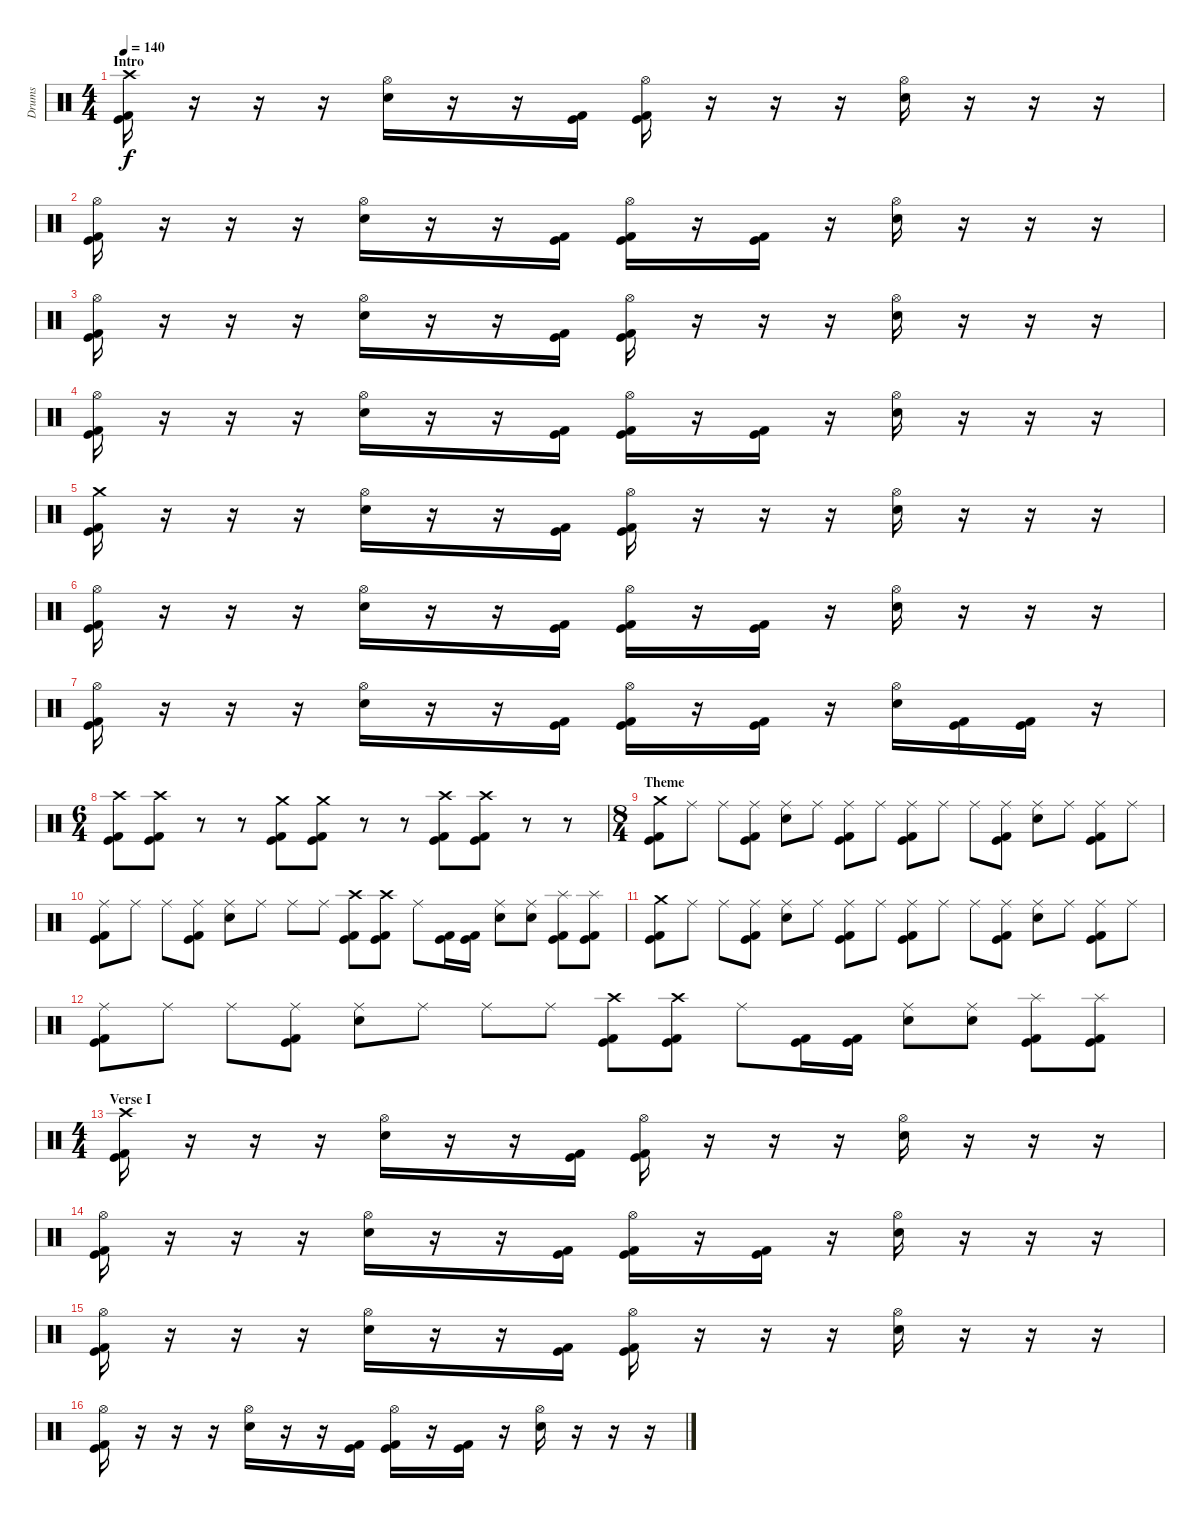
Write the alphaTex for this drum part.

\track ("Drums" "Drums") {instrument percussion}
\staff {score}
\articulation defaults
\ts (4 4)
\section ("" "Intro")
\tempo 140
\clef neutral
\ks c
("Crash high (hit)" "Kick (hit)" "Kick (hit) 2").16{dy f} r.16 r.16 r.16 ("Hi-Hat (open)" "Electric Snare (hit)").16 r.16 r.16 ("Kick (hit)" "Kick (hit) 2").16 ("Hi-Hat (open)" "Kick (hit)" "Kick (hit) 2").16 r.16 r.16 r.16 ("Hi-Hat (open)" "Electric Snare (hit)").16 r.16 r.16 r.16 |
("Hi-Hat (open)" "Kick (hit)" "Kick (hit) 2").16 r.16 r.16 r.16 ("Hi-Hat (open)" "Electric Snare (hit)").16 r.16 r.16 ("Kick (hit)" "Kick (hit) 2").16 ("Hi-Hat (open)" "Kick (hit)" "Kick (hit) 2").16 r.16 ("Kick (hit)" "Kick (hit) 2").16 r.16 ("Hi-Hat (open)" "Electric Snare (hit)").16 r.16 r.16 r.16 |
("Hi-Hat (open)" "Kick (hit)" "Kick (hit) 2").16 r.16 r.16 r.16 ("Hi-Hat (open)" "Electric Snare (hit)").16 r.16 r.16 ("Kick (hit)" "Kick (hit) 2").16 ("Hi-Hat (open)" "Kick (hit)" "Kick (hit) 2").16 r.16 r.16 r.16 ("Hi-Hat (open)" "Electric Snare (hit)").16 r.16 r.16 r.16 |
("Hi-Hat (open)" "Kick (hit)" "Kick (hit) 2").16 r.16 r.16 r.16 ("Hi-Hat (open)" "Electric Snare (hit)").16 r.16 r.16 ("Kick (hit)" "Kick (hit) 2").16 ("Hi-Hat (open)" "Kick (hit)" "Kick (hit) 2").16 r.16 ("Kick (hit)" "Kick (hit) 2").16 r.16 ("Hi-Hat (open)" "Electric Snare (hit)").16 r.16 r.16 r.16 |
("Crash medium (hit)" "Kick (hit)" "Kick (hit) 2").16 r.16 r.16 r.16 ("Hi-Hat (open)" "Electric Snare (hit)").16 r.16 r.16 ("Kick (hit)" "Kick (hit) 2").16 ("Hi-Hat (open)" "Kick (hit)" "Kick (hit) 2").16 r.16 r.16 r.16 ("Hi-Hat (open)" "Electric Snare (hit)").16 r.16 r.16 r.16 |
("Hi-Hat (open)" "Kick (hit)" "Kick (hit) 2").16 r.16 r.16 r.16 ("Hi-Hat (open)" "Electric Snare (hit)").16 r.16 r.16 ("Kick (hit)" "Kick (hit) 2").16 ("Hi-Hat (open)" "Kick (hit)" "Kick (hit) 2").16 r.16 ("Kick (hit)" "Kick (hit) 2").16 r.16 ("Hi-Hat (open)" "Electric Snare (hit)").16 r.16 r.16 r.16 |
("Hi-Hat (open)" "Kick (hit)" "Kick (hit) 2").16 r.16 r.16 r.16 ("Hi-Hat (open)" "Electric Snare (hit)").16 r.16 r.16 ("Kick (hit)" "Kick (hit) 2").16 ("Hi-Hat (open)" "Kick (hit)" "Kick (hit) 2").16 r.16 ("Kick (hit)" "Kick (hit) 2").16 r.16 ("Hi-Hat (open)" "Electric Snare (hit)").16 ("Kick (hit)" "Kick (hit) 2").16 ("Kick (hit)" "Kick (hit) 2").16 r.16 |
\ts (6 4)
("Crash high (hit)" "Kick (hit)" "Kick (hit) 2").8 ("Crash high (hit)" "Kick (hit)" "Kick (hit) 2").8 r.8 r.8 ("Crash medium (hit)" "Kick (hit)" "Kick (hit) 2").8 ("Crash medium (hit)" "Kick (hit)" "Kick (hit) 2").8 r.8 r.8 ("Crash high (hit)" "Kick (hit)" "Kick (hit) 2").8 ("Crash high (hit)" "Kick (hit)" "Kick (hit) 2").8 r.8 r.8 |
\ts (8 4)
\section ("" "Theme")
("Crash medium (hit)" "Kick (hit)" "Kick (hit) 2").8 "Ride (middle)".8 "Ride (middle)".8 ("Ride (middle)" "Kick (hit)" "Kick (hit) 2").8 ("Ride (middle)" "Electric Snare (hit)").8 "Ride (middle)".8 ("Ride (middle)" "Kick (hit)" "Kick (hit) 2").8 "Ride (middle)".8 ("Ride (middle)" "Kick (hit)" "Kick (hit) 2").8 "Ride (middle)".8 "Ride (middle)".8 ("Ride (middle)" "Kick (hit)" "Kick (hit) 2").8 ("Ride (middle)" "Electric Snare (hit)").8 "Ride (middle)".8 ("Ride (middle)" "Kick (hit)" "Kick (hit) 2").8 "Ride (middle)".8 |
("Ride (middle)" "Kick (hit)" "Kick (hit) 2").8 "Ride (middle)".8 "Ride (middle)".8 ("Ride (middle)" "Kick (hit)" "Kick (hit) 2").8 ("Ride (middle)" "Electric Snare (hit)").8 "Ride (middle)".8 "Ride (middle)".8 "Ride (middle)".8 ("Crash high (hit)" "Kick (hit)" "Kick (hit) 2").8 ("Crash high (hit)" "Kick (hit)" "Kick (hit) 2").8 "Ride (middle)".8 ("Kick (hit)" "Kick (hit) 2").16 ("Kick (hit)" "Kick (hit) 2").16 ("Ride (middle)" "Electric Snare (hit)").8 ("Ride (middle)" "Electric Snare (hit)").8 ("Splash (hit)" "Kick (hit)" "Kick (hit) 2").8 ("Splash (hit)" "Kick (hit)" "Kick (hit) 2").8 |
("Crash medium (hit)" "Kick (hit)" "Kick (hit) 2").8 "Ride (middle)".8 "Ride (middle)".8 ("Ride (middle)" "Kick (hit)" "Kick (hit) 2").8 ("Ride (middle)" "Electric Snare (hit)").8 "Ride (middle)".8 ("Ride (middle)" "Kick (hit)" "Kick (hit) 2").8 "Ride (middle)".8 ("Ride (middle)" "Kick (hit)" "Kick (hit) 2").8 "Ride (middle)".8 "Ride (middle)".8 ("Ride (middle)" "Kick (hit)" "Kick (hit) 2").8 ("Ride (middle)" "Electric Snare (hit)").8 "Ride (middle)".8 ("Ride (middle)" "Kick (hit)" "Kick (hit) 2").8 "Ride (middle)".8 |
("Ride (middle)" "Kick (hit)" "Kick (hit) 2").8 "Ride (middle)".8 "Ride (middle)".8 ("Ride (middle)" "Kick (hit)" "Kick (hit) 2").8 ("Ride (middle)" "Electric Snare (hit)").8 "Ride (middle)".8 "Ride (middle)".8 "Ride (middle)".8 ("Crash high (hit)" "Kick (hit)" "Kick (hit) 2").8 ("Crash high (hit)" "Kick (hit)" "Kick (hit) 2").8 "Ride (middle)".8 ("Kick (hit)" "Kick (hit) 2").16 ("Kick (hit)" "Kick (hit) 2").16 ("Ride (middle)" "Electric Snare (hit)").8 ("Ride (middle)" "Electric Snare (hit)").8 ("Splash (hit)" "Kick (hit)" "Kick (hit) 2").8 ("Splash (hit)" "Kick (hit)" "Kick (hit) 2").8 |
\ts (4 4)
\section ("" "Verse I")
("Crash high (hit)" "Kick (hit)" "Kick (hit) 2").16 r.16 r.16 r.16 ("Hi-Hat (open)" "Electric Snare (hit)").16 r.16 r.16 ("Kick (hit)" "Kick (hit) 2").16 ("Hi-Hat (open)" "Kick (hit)" "Kick (hit) 2").16 r.16 r.16 r.16 ("Hi-Hat (open)" "Electric Snare (hit)").16 r.16 r.16 r.16 |
("Hi-Hat (open)" "Kick (hit)" "Kick (hit) 2").16 r.16 r.16 r.16 ("Hi-Hat (open)" "Electric Snare (hit)").16 r.16 r.16 ("Kick (hit)" "Kick (hit) 2").16 ("Hi-Hat (open)" "Kick (hit)" "Kick (hit) 2").16 r.16 ("Kick (hit)" "Kick (hit) 2").16 r.16 ("Hi-Hat (open)" "Electric Snare (hit)").16 r.16 r.16 r.16 |
("Hi-Hat (open)" "Kick (hit)" "Kick (hit) 2").16 r.16 r.16 r.16 ("Hi-Hat (open)" "Electric Snare (hit)").16 r.16 r.16 ("Kick (hit)" "Kick (hit) 2").16 ("Hi-Hat (open)" "Kick (hit)" "Kick (hit) 2").16 r.16 r.16 r.16 ("Hi-Hat (open)" "Electric Snare (hit)").16 r.16 r.16 r.16 |
("Hi-Hat (open)" "Kick (hit)" "Kick (hit) 2").16 r.16 r.16 r.16 ("Hi-Hat (open)" "Electric Snare (hit)").16 r.16 r.16 ("Kick (hit)" "Kick (hit) 2").16 ("Hi-Hat (open)" "Kick (hit)" "Kick (hit) 2").16 r.16 ("Kick (hit)" "Kick (hit) 2").16 r.16 ("Hi-Hat (open)" "Electric Snare (hit)").16 r.16 r.16 r.16
